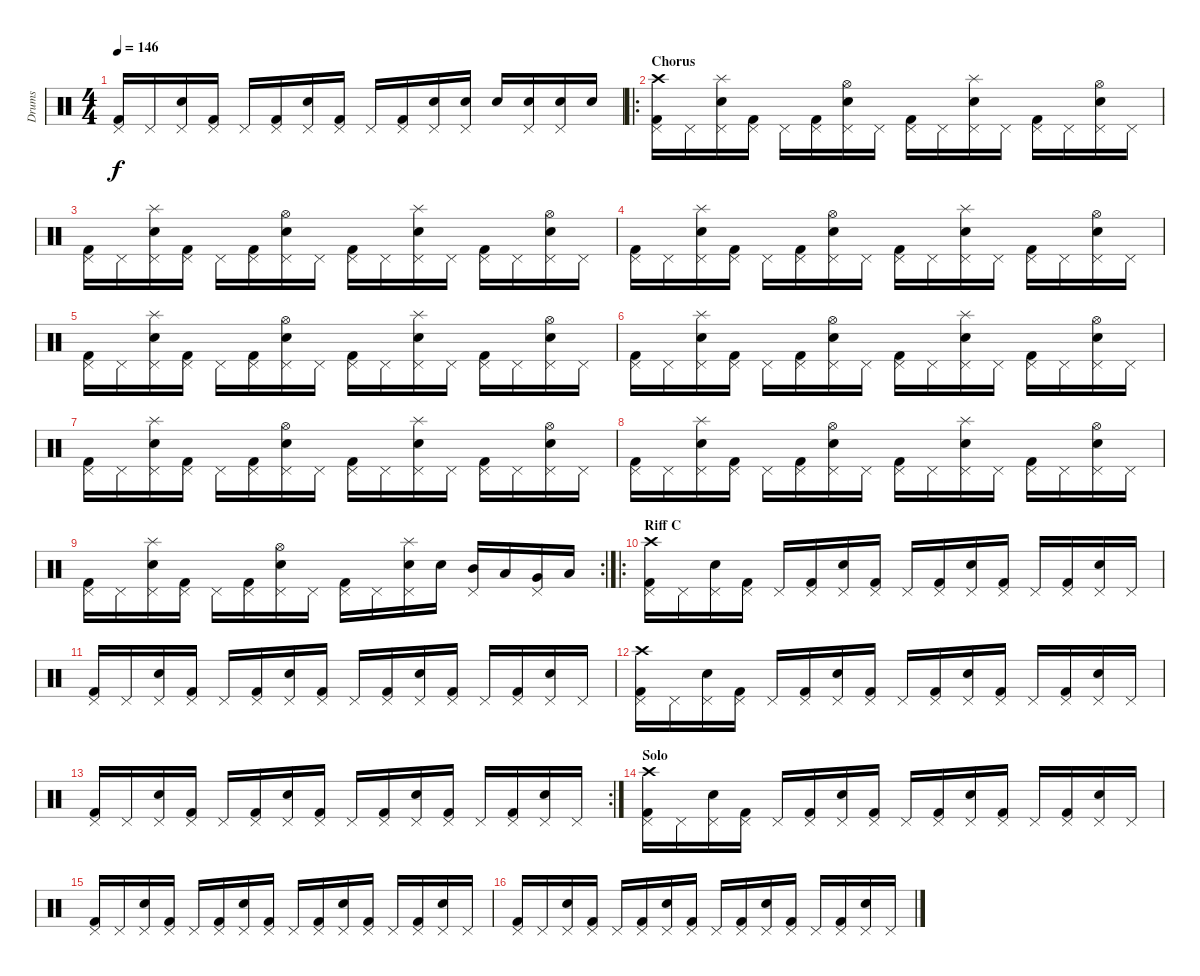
\track ("Drums" "Drums") {instrument percussion}
\staff {score}
\articulation defaults
\ts (4 4)
\tempo 146
\clef neutral
\ks c
("Kick (hit) 2" "Pedal Hi-Hat (hit)").16{dy f} "Pedal Hi-Hat (hit)".16 ("Snare (hit) 2" "Pedal Hi-Hat (hit)").16 ("Kick (hit) 2" "Pedal Hi-Hat (hit)").16 "Pedal Hi-Hat (hit)".16 ("Kick (hit) 2" "Pedal Hi-Hat (hit)").16 ("Snare (hit) 2" "Pedal Hi-Hat (hit)").16 ("Kick (hit) 2" "Pedal Hi-Hat (hit)").16 "Pedal Hi-Hat (hit)".16 ("Kick (hit) 2" "Pedal Hi-Hat (hit)").16 ("Snare (hit) 2" "Pedal Hi-Hat (hit)").16 ("Snare (hit) 2" "Pedal Hi-Hat (hit)").16 "Snare (hit) 2".16 ("Snare (hit) 2" "Pedal Hi-Hat (hit)").16 ("Snare (hit) 2" "Pedal Hi-Hat (hit)").16 "Snare (hit) 2".16 |
\ro
\section ("" "Chorus")
("Kick (hit) 2" "Pedal Hi-Hat (hit)" "Crash high (hit)").16 "Pedal Hi-Hat (hit)".16 ("Snare (hit) 2" "Pedal Hi-Hat (hit)" "Splash (hit)").16 ("Kick (hit) 2" "Pedal Hi-Hat (hit)").16 "Pedal Hi-Hat (hit)".16 ("Kick (hit) 2" "Pedal Hi-Hat (hit)").16 ("Snare (hit) 2" "Pedal Hi-Hat (hit)" "Hi-Hat (open)").16 "Pedal Hi-Hat (hit)".16 ("Kick (hit) 2" "Pedal Hi-Hat (hit)").16 "Pedal Hi-Hat (hit)".16 ("Snare (hit) 2" "Pedal Hi-Hat (hit)" "Splash (hit)").16 "Pedal Hi-Hat (hit)".16 ("Kick (hit) 2" "Pedal Hi-Hat (hit)").16 "Pedal Hi-Hat (hit)".16 ("Snare (hit) 2" "Pedal Hi-Hat (hit)" "Hi-Hat (open)").16 "Pedal Hi-Hat (hit)".16 |
("Kick (hit) 2" "Pedal Hi-Hat (hit)").16 "Pedal Hi-Hat (hit)".16 ("Snare (hit) 2" "Pedal Hi-Hat (hit)" "Splash (hit)").16 ("Kick (hit) 2" "Pedal Hi-Hat (hit)").16 "Pedal Hi-Hat (hit)".16 ("Kick (hit) 2" "Pedal Hi-Hat (hit)").16 ("Snare (hit) 2" "Pedal Hi-Hat (hit)" "Hi-Hat (open)").16 "Pedal Hi-Hat (hit)".16 ("Kick (hit) 2" "Pedal Hi-Hat (hit)").16 "Pedal Hi-Hat (hit)".16 ("Snare (hit) 2" "Pedal Hi-Hat (hit)" "Splash (hit)").16 "Pedal Hi-Hat (hit)".16 ("Kick (hit) 2" "Pedal Hi-Hat (hit)").16 "Pedal Hi-Hat (hit)".16 ("Snare (hit) 2" "Pedal Hi-Hat (hit)" "Hi-Hat (open)").16 "Pedal Hi-Hat (hit)".16 |
("Kick (hit) 2" "Pedal Hi-Hat (hit)").16 "Pedal Hi-Hat (hit)".16 ("Snare (hit) 2" "Pedal Hi-Hat (hit)" "Splash (hit)").16 ("Kick (hit) 2" "Pedal Hi-Hat (hit)").16 "Pedal Hi-Hat (hit)".16 ("Kick (hit) 2" "Pedal Hi-Hat (hit)").16 ("Snare (hit) 2" "Pedal Hi-Hat (hit)" "Hi-Hat (open)").16 "Pedal Hi-Hat (hit)".16 ("Kick (hit) 2" "Pedal Hi-Hat (hit)").16 "Pedal Hi-Hat (hit)".16 ("Snare (hit) 2" "Pedal Hi-Hat (hit)" "Splash (hit)").16 "Pedal Hi-Hat (hit)".16 ("Kick (hit) 2" "Pedal Hi-Hat (hit)").16 "Pedal Hi-Hat (hit)".16 ("Snare (hit) 2" "Pedal Hi-Hat (hit)" "Hi-Hat (open)").16 "Pedal Hi-Hat (hit)".16 |
("Kick (hit) 2" "Pedal Hi-Hat (hit)").16 "Pedal Hi-Hat (hit)".16 ("Snare (hit) 2" "Pedal Hi-Hat (hit)" "Splash (hit)").16 ("Kick (hit) 2" "Pedal Hi-Hat (hit)").16 "Pedal Hi-Hat (hit)".16 ("Kick (hit) 2" "Pedal Hi-Hat (hit)").16 ("Snare (hit) 2" "Pedal Hi-Hat (hit)" "Hi-Hat (open)").16 "Pedal Hi-Hat (hit)".16 ("Kick (hit) 2" "Pedal Hi-Hat (hit)").16 "Pedal Hi-Hat (hit)".16 ("Snare (hit) 2" "Pedal Hi-Hat (hit)" "Splash (hit)").16 "Pedal Hi-Hat (hit)".16 ("Kick (hit) 2" "Pedal Hi-Hat (hit)").16 "Pedal Hi-Hat (hit)".16 ("Snare (hit) 2" "Pedal Hi-Hat (hit)" "Hi-Hat (open)").16 "Pedal Hi-Hat (hit)".16 |
("Kick (hit) 2" "Pedal Hi-Hat (hit)").16 "Pedal Hi-Hat (hit)".16 ("Snare (hit) 2" "Pedal Hi-Hat (hit)" "Splash (hit)").16 ("Kick (hit) 2" "Pedal Hi-Hat (hit)").16 "Pedal Hi-Hat (hit)".16 ("Kick (hit) 2" "Pedal Hi-Hat (hit)").16 ("Snare (hit) 2" "Pedal Hi-Hat (hit)" "Hi-Hat (open)").16 "Pedal Hi-Hat (hit)".16 ("Kick (hit) 2" "Pedal Hi-Hat (hit)").16 "Pedal Hi-Hat (hit)".16 ("Snare (hit) 2" "Pedal Hi-Hat (hit)" "Splash (hit)").16 "Pedal Hi-Hat (hit)".16 ("Kick (hit) 2" "Pedal Hi-Hat (hit)").16 "Pedal Hi-Hat (hit)".16 ("Snare (hit) 2" "Pedal Hi-Hat (hit)" "Hi-Hat (open)").16 "Pedal Hi-Hat (hit)".16 |
("Kick (hit) 2" "Pedal Hi-Hat (hit)").16 "Pedal Hi-Hat (hit)".16 ("Snare (hit) 2" "Pedal Hi-Hat (hit)" "Splash (hit)").16 ("Kick (hit) 2" "Pedal Hi-Hat (hit)").16 "Pedal Hi-Hat (hit)".16 ("Kick (hit) 2" "Pedal Hi-Hat (hit)").16 ("Snare (hit) 2" "Pedal Hi-Hat (hit)" "Hi-Hat (open)").16 "Pedal Hi-Hat (hit)".16 ("Kick (hit) 2" "Pedal Hi-Hat (hit)").16 "Pedal Hi-Hat (hit)".16 ("Snare (hit) 2" "Pedal Hi-Hat (hit)" "Splash (hit)").16 "Pedal Hi-Hat (hit)".16 ("Kick (hit) 2" "Pedal Hi-Hat (hit)").16 "Pedal Hi-Hat (hit)".16 ("Snare (hit) 2" "Pedal Hi-Hat (hit)" "Hi-Hat (open)").16 "Pedal Hi-Hat (hit)".16 |
("Kick (hit) 2" "Pedal Hi-Hat (hit)").16 "Pedal Hi-Hat (hit)".16 ("Snare (hit) 2" "Pedal Hi-Hat (hit)" "Splash (hit)").16 ("Kick (hit) 2" "Pedal Hi-Hat (hit)").16 "Pedal Hi-Hat (hit)".16 ("Kick (hit) 2" "Pedal Hi-Hat (hit)").16 ("Snare (hit) 2" "Pedal Hi-Hat (hit)" "Hi-Hat (open)").16 "Pedal Hi-Hat (hit)".16 ("Kick (hit) 2" "Pedal Hi-Hat (hit)").16 "Pedal Hi-Hat (hit)".16 ("Snare (hit) 2" "Pedal Hi-Hat (hit)" "Splash (hit)").16 "Pedal Hi-Hat (hit)".16 ("Kick (hit) 2" "Pedal Hi-Hat (hit)").16 "Pedal Hi-Hat (hit)".16 ("Snare (hit) 2" "Pedal Hi-Hat (hit)" "Hi-Hat (open)").16 "Pedal Hi-Hat (hit)".16 |
\rc 2
("Kick (hit) 2" "Pedal Hi-Hat (hit)").16 "Pedal Hi-Hat (hit)".16 ("Snare (hit) 2" "Pedal Hi-Hat (hit)" "Splash (hit)").16 ("Kick (hit) 2" "Pedal Hi-Hat (hit)").16 "Pedal Hi-Hat (hit)".16 ("Kick (hit) 2" "Pedal Hi-Hat (hit)").16 ("Snare (hit) 2" "Pedal Hi-Hat (hit)" "Hi-Hat (open)").16 "Pedal Hi-Hat (hit)".16 ("Kick (hit) 2" "Pedal Hi-Hat (hit)").16 "Pedal Hi-Hat (hit)".16 ("Snare (hit) 2" "Pedal Hi-Hat (hit)" "Splash (hit)").16 "Snare (hit) 2".16 ("Mid Tom (hit)" "Pedal Hi-Hat (hit)").16 "Low Tom (hit)".16 ("Very Low Tom (hit)" "Pedal Hi-Hat (hit)").16 "Low Floor Tom (hit)".16 |
\ro
\section ("" "Riff C")
("Kick (hit) 2" "Pedal Hi-Hat (hit)" "Crash high (hit)").16 "Pedal Hi-Hat (hit)".16 ("Snare (hit) 2" "Pedal Hi-Hat (hit)").16 ("Kick (hit) 2" "Pedal Hi-Hat (hit)").16 "Pedal Hi-Hat (hit)".16 ("Kick (hit) 2" "Pedal Hi-Hat (hit)").16 ("Snare (hit) 2" "Pedal Hi-Hat (hit)").16 ("Kick (hit) 2" "Pedal Hi-Hat (hit)").16 "Pedal Hi-Hat (hit)".16 ("Kick (hit) 2" "Pedal Hi-Hat (hit)").16 ("Snare (hit) 2" "Pedal Hi-Hat (hit)").16 ("Kick (hit) 2" "Pedal Hi-Hat (hit)").16 "Pedal Hi-Hat (hit)".16 ("Kick (hit) 2" "Pedal Hi-Hat (hit)").16 ("Snare (hit) 2" "Pedal Hi-Hat (hit)").16 "Pedal Hi-Hat (hit)".16 |
("Kick (hit) 2" "Pedal Hi-Hat (hit)").16 "Pedal Hi-Hat (hit)".16 ("Snare (hit) 2" "Pedal Hi-Hat (hit)").16 ("Kick (hit) 2" "Pedal Hi-Hat (hit)").16 "Pedal Hi-Hat (hit)".16 ("Kick (hit) 2" "Pedal Hi-Hat (hit)").16 ("Snare (hit) 2" "Pedal Hi-Hat (hit)").16 ("Kick (hit) 2" "Pedal Hi-Hat (hit)").16 "Pedal Hi-Hat (hit)".16 ("Kick (hit) 2" "Pedal Hi-Hat (hit)").16 ("Snare (hit) 2" "Pedal Hi-Hat (hit)").16 ("Kick (hit) 2" "Pedal Hi-Hat (hit)").16 "Pedal Hi-Hat (hit)".16 ("Kick (hit) 2" "Pedal Hi-Hat (hit)").16 ("Snare (hit) 2" "Pedal Hi-Hat (hit)").16 "Pedal Hi-Hat (hit)".16 |
("Kick (hit) 2" "Pedal Hi-Hat (hit)" "Crash high (hit)").16 "Pedal Hi-Hat (hit)".16 ("Snare (hit) 2" "Pedal Hi-Hat (hit)").16 ("Kick (hit) 2" "Pedal Hi-Hat (hit)").16 "Pedal Hi-Hat (hit)".16 ("Kick (hit) 2" "Pedal Hi-Hat (hit)").16 ("Snare (hit) 2" "Pedal Hi-Hat (hit)").16 ("Kick (hit) 2" "Pedal Hi-Hat (hit)").16 "Pedal Hi-Hat (hit)".16 ("Kick (hit) 2" "Pedal Hi-Hat (hit)").16 ("Snare (hit) 2" "Pedal Hi-Hat (hit)").16 ("Kick (hit) 2" "Pedal Hi-Hat (hit)").16 "Pedal Hi-Hat (hit)".16 ("Kick (hit) 2" "Pedal Hi-Hat (hit)").16 ("Snare (hit) 2" "Pedal Hi-Hat (hit)").16 "Pedal Hi-Hat (hit)".16 |
\rc 2
("Kick (hit) 2" "Pedal Hi-Hat (hit)").16 "Pedal Hi-Hat (hit)".16 ("Snare (hit) 2" "Pedal Hi-Hat (hit)").16 ("Kick (hit) 2" "Pedal Hi-Hat (hit)").16 "Pedal Hi-Hat (hit)".16 ("Kick (hit) 2" "Pedal Hi-Hat (hit)").16 ("Snare (hit) 2" "Pedal Hi-Hat (hit)").16 ("Kick (hit) 2" "Pedal Hi-Hat (hit)").16 "Pedal Hi-Hat (hit)".16 ("Kick (hit) 2" "Pedal Hi-Hat (hit)").16 ("Snare (hit) 2" "Pedal Hi-Hat (hit)").16 ("Kick (hit) 2" "Pedal Hi-Hat (hit)").16 "Pedal Hi-Hat (hit)".16 ("Kick (hit) 2" "Pedal Hi-Hat (hit)").16 ("Snare (hit) 2" "Pedal Hi-Hat (hit)").16 "Pedal Hi-Hat (hit)".16 |
\section ("" "Solo")
("Kick (hit) 2" "Pedal Hi-Hat (hit)" "Crash high (hit)").16 "Pedal Hi-Hat (hit)".16 ("Snare (hit) 2" "Pedal Hi-Hat (hit)").16 ("Kick (hit) 2" "Pedal Hi-Hat (hit)").16 "Pedal Hi-Hat (hit)".16 ("Kick (hit) 2" "Pedal Hi-Hat (hit)").16 ("Snare (hit) 2" "Pedal Hi-Hat (hit)").16 ("Kick (hit) 2" "Pedal Hi-Hat (hit)").16 "Pedal Hi-Hat (hit)".16 ("Kick (hit) 2" "Pedal Hi-Hat (hit)").16 ("Snare (hit) 2" "Pedal Hi-Hat (hit)").16 ("Kick (hit) 2" "Pedal Hi-Hat (hit)").16 "Pedal Hi-Hat (hit)".16 ("Kick (hit) 2" "Pedal Hi-Hat (hit)").16 ("Snare (hit) 2" "Pedal Hi-Hat (hit)").16 "Pedal Hi-Hat (hit)".16 |
("Kick (hit) 2" "Pedal Hi-Hat (hit)").16 "Pedal Hi-Hat (hit)".16 ("Snare (hit) 2" "Pedal Hi-Hat (hit)").16 ("Kick (hit) 2" "Pedal Hi-Hat (hit)").16 "Pedal Hi-Hat (hit)".16 ("Kick (hit) 2" "Pedal Hi-Hat (hit)").16 ("Snare (hit) 2" "Pedal Hi-Hat (hit)").16 ("Kick (hit) 2" "Pedal Hi-Hat (hit)").16 "Pedal Hi-Hat (hit)".16 ("Kick (hit) 2" "Pedal Hi-Hat (hit)").16 ("Snare (hit) 2" "Pedal Hi-Hat (hit)").16 ("Kick (hit) 2" "Pedal Hi-Hat (hit)").16 "Pedal Hi-Hat (hit)".16 ("Kick (hit) 2" "Pedal Hi-Hat (hit)").16 ("Snare (hit) 2" "Pedal Hi-Hat (hit)").16 "Pedal Hi-Hat (hit)".16 |
("Kick (hit) 2" "Pedal Hi-Hat (hit)").16 "Pedal Hi-Hat (hit)".16 ("Snare (hit) 2" "Pedal Hi-Hat (hit)").16 ("Kick (hit) 2" "Pedal Hi-Hat (hit)").16 "Pedal Hi-Hat (hit)".16 ("Kick (hit) 2" "Pedal Hi-Hat (hit)").16 ("Snare (hit) 2" "Pedal Hi-Hat (hit)").16 ("Kick (hit) 2" "Pedal Hi-Hat (hit)").16 "Pedal Hi-Hat (hit)".16 ("Kick (hit) 2" "Pedal Hi-Hat (hit)").16 ("Snare (hit) 2" "Pedal Hi-Hat (hit)").16 ("Kick (hit) 2" "Pedal Hi-Hat (hit)").16 "Pedal Hi-Hat (hit)".16 ("Kick (hit) 2" "Pedal Hi-Hat (hit)").16 ("Snare (hit) 2" "Pedal Hi-Hat (hit)").16 "Pedal Hi-Hat (hit)".16
